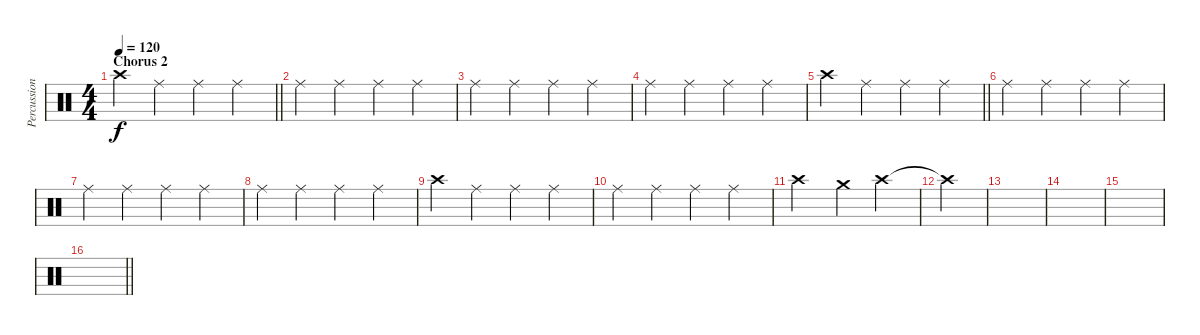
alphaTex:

\track ("Percussion" "Percussion") {instrument percussion}
\staff {score}
\articulation defaults
\ts (4 4)
\section ("" "Chorus 2")
\tempo 120
\clef neutral
\barLineRight lightlight
\ks c "Crash high (hit)".4{dy f} "Ride (middle)".4 "Ride (middle)".4 "Ride (middle)".4
|
"Ride (middle)".4 "Ride (middle)".4 "Ride (middle)".4 "Ride (middle)".4 |
"Ride (middle)".4 "Ride (middle)".4 "Ride (middle)".4 "Ride (middle)".4 |
"Ride (middle)".4 "Ride (middle)".4 "Ride (middle)".4 "Ride (middle)".4 |
\barLineRight lightlight "Crash high (hit)".4 "Ride (middle)".4 "Ride (middle)".4 "Ride (middle)".4
|
"Ride (middle)".4 "Ride (middle)".4 "Ride (middle)".4 "Ride (middle)".4 |
"Ride (middle)".4 "Ride (middle)".4 "Ride (middle)".4 "Ride (middle)".4 |
"Ride (middle)".4 "Ride (middle)".4 "Ride (middle)".4 "Ride (middle)".4 |
"Crash high (hit)".4 "Ride (middle)".4 "Ride (middle)".4 "Ride (middle)".4 |
"Ride (middle)".4 "Ride (middle)".4 "Ride (middle)".4 "Ride (middle)".4 |
"Crash high (hit)".2 "Crash medium (hit)".4 "Crash high (hit)".4 |
"Crash high (hit)"{t}.4 |
|
|
|
\barLineRight lightlight
